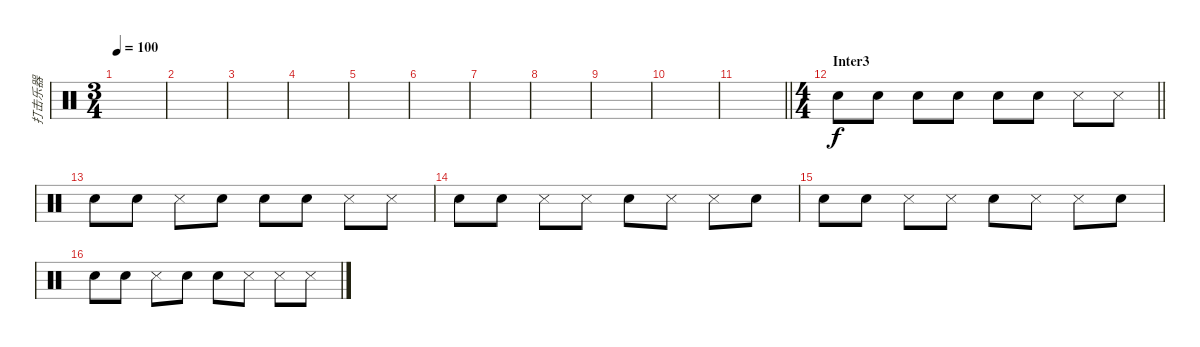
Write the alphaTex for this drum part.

\track ("打击乐器" "打击乐器") {instrument percussion}
\staff {score}
\articulation defaults
\ts (3 4)
\tempo 100
\clef neutral
\ks c
|
|
|
|
|
|
|
|
|
|
\barLineRight lightlight
|
\ts (4 4)
\section ("" "Inter3")
\barLineRight lightlight "Snare (hit)".8 "Snare (hit)".8 "Snare (hit)".8 "Snare (hit)".8 "Snare (hit)".8 "Snare (hit)".8 "Metronome (hit)".8 "Metronome (hit)".8
|
\section ("" "")
"Snare (hit)".8 "Snare (hit)".8 "Metronome (hit)".8 "Snare (hit)".8 "Snare (hit)".8 "Snare (hit)".8 "Metronome (hit)".8 "Metronome (hit)".8 |
"Snare (hit)".8 "Snare (hit)".8 "Metronome (hit)".8 "Metronome (hit)".8 "Snare (hit)".8 "Metronome (hit)".8 "Metronome (hit)".8 "Snare (hit)".8 |
"Snare (hit)".8 "Snare (hit)".8 "Metronome (hit)".8 "Metronome (hit)".8 "Snare (hit)".8 "Metronome (hit)".8 "Metronome (hit)".8 "Snare (hit)".8 |
"Snare (hit)".8 "Snare (hit)".8 "Metronome (hit)".8 "Snare (hit)".8 "Snare (hit)".8 "Metronome (hit)".8 "Metronome (hit)".8 "Metronome (hit)".8
